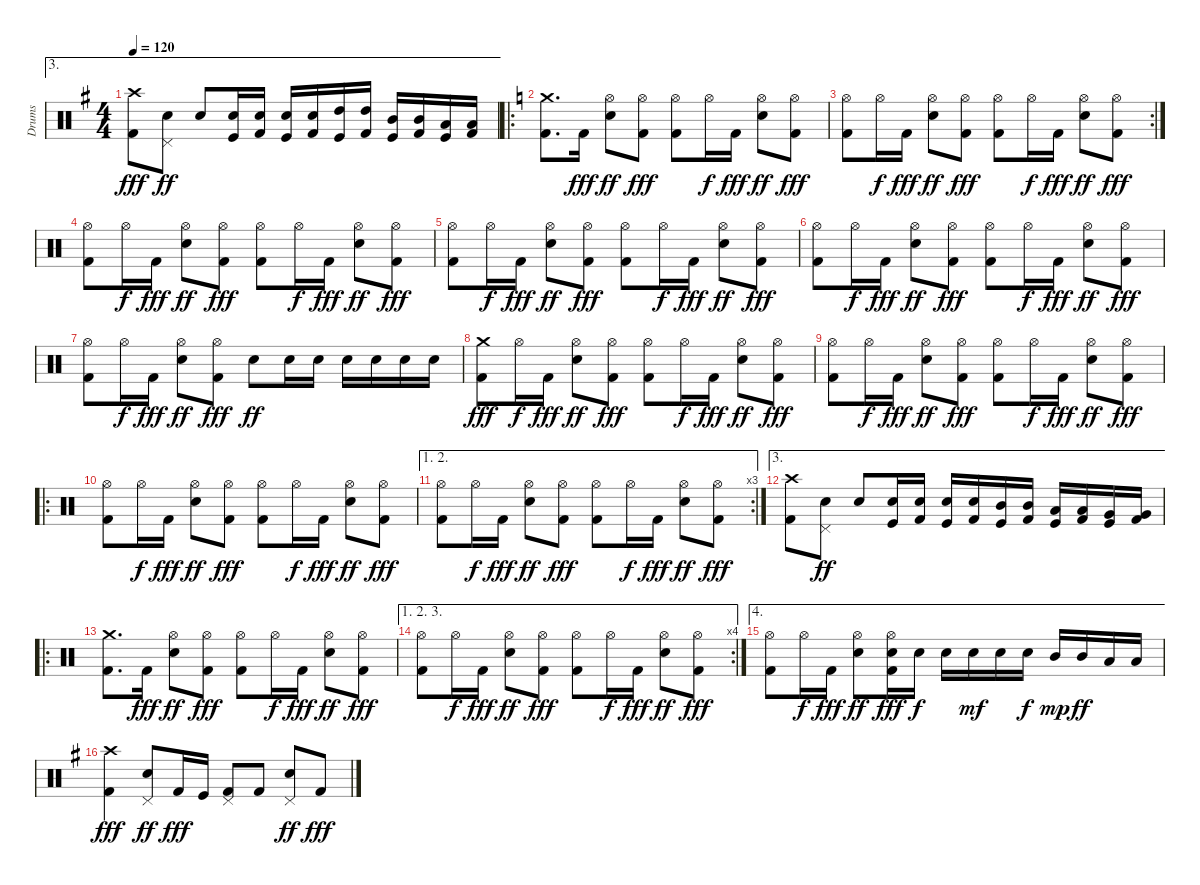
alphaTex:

\track ("Drums" "Drums") {instrument percussion}
\staff {score}
\articulation defaults
\ae 3
\ts (4 4)
\tempo 120
\clef neutral
\ks g
("Crash high (hit)" "Kick (hit) 2").8{dy fff} ("Pedal Hi-Hat (hit)" "Snare (hit) 2").8{dy ff} "Snare (hit) 2".8 ("Snare (hit) 2" "Kick (hit)").16 ("Snare (hit) 2" "Kick (hit) 2").16 ("Snare (hit) 2" "Kick (hit)").16 ("Snare (hit) 2" "Kick (hit) 2").16 ("High Tom (hit)" "Kick (hit)").16 ("High Tom (hit)" "Kick (hit) 2").16 ("Mid Tom (hit)" "Kick (hit)").16 ("Mid Tom (hit)" "Kick (hit) 2").16 ("Low Tom (hit)" "Kick (hit)").16 ("Low Tom (hit)" "Kick (hit) 2").16 |
\ro
\ks c
("Crash medium (hit)" "Kick (hit) 2").8{d} "Kick (hit) 2".16{dy fff} ("Hi-Hat (open)" "Snare (hit) 2").8{dy ff} ("Hi-Hat (open)" "Kick (hit) 2").8{dy fff} ("Hi-Hat (open)" "Kick (hit) 2").8 "Hi-Hat (open)".16{dy f} "Kick (hit) 2".16{dy fff} ("Hi-Hat (open)" "Snare (hit) 2").8{dy ff} ("Hi-Hat (open)" "Kick (hit) 2").8{dy fff} |
\rc 2
("Hi-Hat (open)" "Kick (hit) 2").8 "Hi-Hat (open)".16{dy f} "Kick (hit) 2".16{dy fff} ("Hi-Hat (open)" "Snare (hit) 2").8{dy ff} ("Hi-Hat (open)" "Kick (hit) 2").8{dy fff} ("Hi-Hat (open)" "Kick (hit) 2").8 "Hi-Hat (open)".16{dy f} "Kick (hit) 2".16{dy fff} ("Hi-Hat (open)" "Snare (hit) 2").8{dy ff} ("Hi-Hat (open)" "Kick (hit) 2").8{dy fff} |
("Hi-Hat (open)" "Kick (hit) 2").8 "Hi-Hat (open)".16{dy f} "Kick (hit) 2".16{dy fff} ("Hi-Hat (open)" "Snare (hit) 2").8{dy ff} ("Hi-Hat (open)" "Kick (hit) 2").8{dy fff} ("Hi-Hat (open)" "Kick (hit) 2").8 "Hi-Hat (open)".16{dy f} "Kick (hit) 2".16{dy fff} ("Hi-Hat (open)" "Snare (hit) 2").8{dy ff} ("Hi-Hat (open)" "Kick (hit) 2").8{dy fff} |
("Hi-Hat (open)" "Kick (hit) 2").8 "Hi-Hat (open)".16{dy f} "Kick (hit) 2".16{dy fff} ("Hi-Hat (open)" "Snare (hit) 2").8{dy ff} ("Hi-Hat (open)" "Kick (hit) 2").8{dy fff} ("Hi-Hat (open)" "Kick (hit) 2").8 "Hi-Hat (open)".16{dy f} "Kick (hit) 2".16{dy fff} ("Hi-Hat (open)" "Snare (hit) 2").8{dy ff} ("Hi-Hat (open)" "Kick (hit) 2").8{dy fff} |
("Hi-Hat (open)" "Kick (hit) 2").8 "Hi-Hat (open)".16{dy f} "Kick (hit) 2".16{dy fff} ("Hi-Hat (open)" "Snare (hit) 2").8{dy ff} ("Hi-Hat (open)" "Kick (hit) 2").8{dy fff} ("Hi-Hat (open)" "Kick (hit) 2").8 "Hi-Hat (open)".16{dy f} "Kick (hit) 2".16{dy fff} ("Hi-Hat (open)" "Snare (hit) 2").8{dy ff} ("Hi-Hat (open)" "Kick (hit) 2").8{dy fff} |
("Hi-Hat (open)" "Kick (hit) 2").8 "Hi-Hat (open)".16{dy f} "Kick (hit) 2".16{dy fff} ("Hi-Hat (open)" "Snare (hit) 2").8{dy ff} ("Hi-Hat (open)" "Kick (hit) 2").8{dy fff} "Snare (hit) 2".8{dy ff} "Snare (hit) 2".16 "Snare (hit) 2".16 "Snare (hit) 2".16 "Snare (hit) 2".16 "Snare (hit) 2".16 "Snare (hit) 2".16 |
("Crash medium (hit)" "Kick (hit) 2").8{dy fff} "Hi-Hat (open)".16{dy f} "Kick (hit) 2".16{dy fff} ("Hi-Hat (open)" "Snare (hit) 2").8{dy ff} ("Hi-Hat (open)" "Kick (hit) 2").8{dy fff} ("Hi-Hat (open)" "Kick (hit) 2").8 "Hi-Hat (open)".16{dy f} "Kick (hit) 2".16{dy fff} ("Hi-Hat (open)" "Snare (hit) 2").8{dy ff} ("Hi-Hat (open)" "Kick (hit) 2").8{dy fff} |
("Hi-Hat (open)" "Kick (hit) 2").8 "Hi-Hat (open)".16{dy f} "Kick (hit) 2".16{dy fff} ("Hi-Hat (open)" "Snare (hit) 2").8{dy ff} ("Hi-Hat (open)" "Kick (hit) 2").8{dy fff} ("Hi-Hat (open)" "Kick (hit) 2").8 "Hi-Hat (open)".16{dy f} "Kick (hit) 2".16{dy fff} ("Hi-Hat (open)" "Snare (hit) 2").8{dy ff} ("Hi-Hat (open)" "Kick (hit) 2").8{dy fff} |
\ro
("Hi-Hat (open)" "Kick (hit) 2").8 "Hi-Hat (open)".16{dy f} "Kick (hit) 2".16{dy fff} ("Hi-Hat (open)" "Snare (hit) 2").8{dy ff} ("Hi-Hat (open)" "Kick (hit) 2").8{dy fff} ("Hi-Hat (open)" "Kick (hit) 2").8 "Hi-Hat (open)".16{dy f} "Kick (hit) 2".16{dy fff} ("Hi-Hat (open)" "Snare (hit) 2").8{dy ff} ("Hi-Hat (open)" "Kick (hit) 2").8{dy fff} |
\ae (1 2)
\rc 3
("Hi-Hat (open)" "Kick (hit) 2").8 "Hi-Hat (open)".16{dy f} "Kick (hit) 2".16{dy fff} ("Hi-Hat (open)" "Snare (hit) 2").8{dy ff} ("Hi-Hat (open)" "Kick (hit) 2").8{dy fff} ("Hi-Hat (open)" "Kick (hit) 2").8 "Hi-Hat (open)".16{dy f} "Kick (hit) 2".16{dy fff} ("Hi-Hat (open)" "Snare (hit) 2").8{dy ff} ("Hi-Hat (open)" "Kick (hit) 2").8{dy fff} |
\ae 3
("Crash high (hit)" "Kick (hit) 2").8 ("Pedal Hi-Hat (hit)" "Snare (hit) 2").8{dy ff} "Snare (hit) 2".8 ("Snare (hit) 2" "Kick (hit)").16 ("Snare (hit) 2" "Kick (hit) 2").16 ("Snare (hit) 2" "Kick (hit)").16 ("Snare (hit) 2" "Kick (hit) 2").16 ("Mid Tom (hit)" "Kick (hit)").16 ("Mid Tom (hit)" "Kick (hit) 2").16 ("Low Tom (hit)" "Kick (hit)").16 ("Low Tom (hit)" "Kick (hit) 2").16 ("Very Low Tom (hit)" "Kick (hit)").16 ("Very Low Tom (hit)" "Kick (hit) 2").16 |
\ro
("Crash medium (hit)" "Kick (hit) 2").8{d} "Kick (hit) 2".16{dy fff} ("Hi-Hat (open)" "Snare (hit) 2").8{dy ff} ("Hi-Hat (open)" "Kick (hit) 2").8{dy fff} ("Hi-Hat (open)" "Kick (hit) 2").8 "Hi-Hat (open)".16{dy f} "Kick (hit) 2".16{dy fff} ("Hi-Hat (open)" "Snare (hit) 2").8{dy ff} ("Hi-Hat (open)" "Kick (hit) 2").8{dy fff} |
\ae (1 2 3)
\rc 4
("Hi-Hat (open)" "Kick (hit) 2").8 "Hi-Hat (open)".16{dy f} "Kick (hit) 2".16{dy fff} ("Hi-Hat (open)" "Snare (hit) 2").8{dy ff} ("Hi-Hat (open)" "Kick (hit) 2").8{dy fff} ("Hi-Hat (open)" "Kick (hit) 2").8 "Hi-Hat (open)".16{dy f} "Kick (hit) 2".16{dy fff} ("Hi-Hat (open)" "Snare (hit) 2").8{dy ff} ("Hi-Hat (open)" "Kick (hit) 2").8{dy fff} |
\ae 4
("Hi-Hat (open)" "Kick (hit) 2").8 "Hi-Hat (open)".16{dy f} "Kick (hit) 2".16{dy fff} ("Hi-Hat (open)" "Snare (hit) 2").8{dy ff} ("Hi-Hat (open)" "Snare (hit) 2" "Kick (hit) 2").16{dy fff} "Snare (hit) 2".16{dy f} "Snare (hit) 2".16 "Snare (hit) 2".16{dy mf} "Snare (hit) 2".16 "Snare (hit) 2".16{dy f} "Mid Tom (hit)".16{dy mp} "Mid Tom (hit)".16{dy ff} "Low Tom (hit)".16 "Low Tom (hit)".16 |
\ks g
("Crash high (hit)" "Kick (hit) 2").4{dy fff} ("Pedal Hi-Hat (hit)" "Snare (hit) 2").8{dy ff} "Kick (hit) 2".16{dy fff} "Kick (hit)".16 ("Pedal Hi-Hat (hit)" "Kick (hit) 2").8 "Kick (hit) 2".8 ("Pedal Hi-Hat (hit)" "Snare (hit) 2").8{dy ff} "Kick (hit) 2".8{dy fff}
